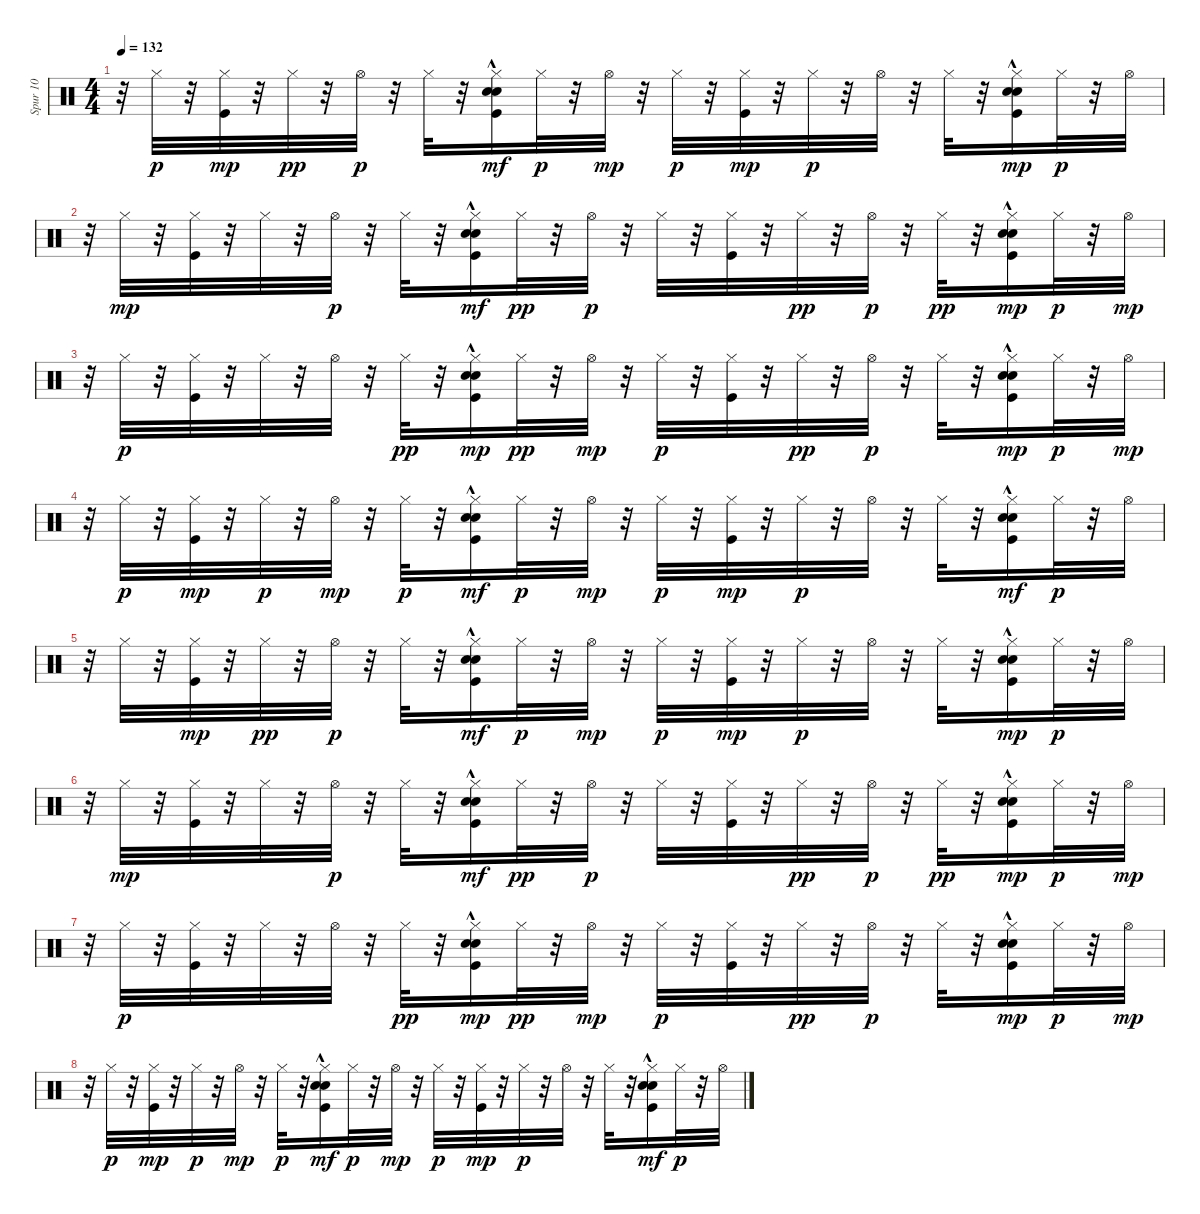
\track ("Spur 10" "Spur 10") {instrument percussion}
\staff {score}
\articulation defaults
\ts (4 4)
\tempo 132
\clef neutral
\ks c
r.32{dy p} "Hi-Hat (closed)".32 r.32 ("Hi-Hat (closed)" "Kick (hit)").32{dy mp} r.32 "Hi-Hat (closed)".32{dy pp} r.32 "Hi-Hat (open)".32{dy p} r.32 "Hi-Hat (closed)".32 r.32 ("Hi-Hat (closed)" "Snare (hit) 2" "Kick (hit)" "Hand Clap (hit)"{hac}).16{dy mf} "Hi-Hat (closed)".32{dy p} r.32 "Hi-Hat (open)".32{dy mp} r.32 "Hi-Hat (closed)".32{dy p} r.32 ("Hi-Hat (closed)" "Kick (hit)").32{dy mp} r.32 "Hi-Hat (closed)".32{dy p} r.32 "Hi-Hat (open)".32 r.32 "Hi-Hat (closed)".32 r.32 ("Hi-Hat (closed)" "Kick (hit)" "Snare (hit) 2" "Hand Clap (hit)"{hac}).16{dy mp} "Hi-Hat (closed)".32{dy p} r.32 "Hi-Hat (open)".32 |
r.32 "Hi-Hat (closed)".32{dy mp} r.32 ("Kick (hit)" "Hi-Hat (closed)").32 r.32 "Hi-Hat (closed)".32 r.32 "Hi-Hat (open)".32{dy p} r.32 "Hi-Hat (closed)".32 r.32 ("Hi-Hat (closed)" "Snare (hit) 2" "Kick (hit)" "Hand Clap (hit)"{hac}).16{dy mf} "Hi-Hat (closed)".32{dy pp} r.32 "Hi-Hat (open)".32{dy p} r.32 "Hi-Hat (closed)".32 r.32 ("Hi-Hat (closed)" "Kick (hit)").32 r.32 "Hi-Hat (closed)".32{dy pp} r.32 "Hi-Hat (open)".32{dy p} r.32 "Hi-Hat (closed)".32{dy pp} r.32 ("Hi-Hat (closed)" "Kick (hit)" "Snare (hit) 2" "Hand Clap (hit)"{hac}).16{dy mp} "Hi-Hat (closed)".32{dy p} r.32 "Hi-Hat (open)".32{dy mp} |
r.32 "Hi-Hat (closed)".32{dy p} r.32 ("Hi-Hat (closed)" "Kick (hit)").32 r.32 "Hi-Hat (closed)".32 r.32 "Hi-Hat (open)".32 r.32 "Hi-Hat (closed)".32{dy pp} r.32 ("Hi-Hat (closed)" "Kick (hit)" "Snare (hit) 2" "Hand Clap (hit)"{hac}).16{dy mp} "Hi-Hat (closed)".32{dy pp} r.32 "Hi-Hat (open)".32{dy mp} r.32 "Hi-Hat (closed)".32{dy p} r.32 ("Hi-Hat (closed)" "Kick (hit)").32 r.32 "Hi-Hat (closed)".32{dy pp} r.32 "Hi-Hat (open)".32{dy p} r.32 "Hi-Hat (closed)".32 r.32 ("Hi-Hat (closed)" "Kick (hit)" "Snare (hit) 2" "Hand Clap (hit)"{hac}).16{dy mp} "Hi-Hat (closed)".32{dy p} r.32 "Hi-Hat (open)".32{dy mp} |
r.32 "Hi-Hat (closed)".32{dy p} r.32 ("Hi-Hat (closed)" "Kick (hit)").32{dy mp} r.32 "Hi-Hat (closed)".32{dy p} r.32 "Hi-Hat (open)".32{dy mp} r.32 "Hi-Hat (closed)".32{dy p} r.32 ("Hi-Hat (closed)" "Snare (hit) 2" "Kick (hit)" "Hand Clap (hit)"{hac}).16{dy mf} "Hi-Hat (closed)".32{dy p} r.32 "Hi-Hat (open)".32{dy mp} r.32 "Hi-Hat (closed)".32{dy p} r.32 ("Hi-Hat (closed)" "Kick (hit)").32{dy mp} r.32 "Hi-Hat (closed)".32{dy p} r.32 "Hi-Hat (open)".32 r.32 "Hi-Hat (closed)".32 r.32 ("Hi-Hat (closed)" "Snare (hit) 2" "Kick (hit)" "Hand Clap (hit)"{hac}).16{dy mf} "Hi-Hat (closed)".32{dy p} r.32 "Hi-Hat (open)".32 |
r.32 "Hi-Hat (closed)".32 r.32 ("Hi-Hat (closed)" "Kick (hit)").32{dy mp} r.32 "Hi-Hat (closed)".32{dy pp} r.32 "Hi-Hat (open)".32{dy p} r.32 "Hi-Hat (closed)".32 r.32 ("Hi-Hat (closed)" "Snare (hit) 2" "Kick (hit)" "Hand Clap (hit)"{hac}).16{dy mf} "Hi-Hat (closed)".32{dy p} r.32 "Hi-Hat (open)".32{dy mp} r.32 "Hi-Hat (closed)".32{dy p} r.32 ("Hi-Hat (closed)" "Kick (hit)").32{dy mp} r.32 "Hi-Hat (closed)".32{dy p} r.32 "Hi-Hat (open)".32 r.32 "Hi-Hat (closed)".32 r.32 ("Hi-Hat (closed)" "Kick (hit)" "Snare (hit) 2" "Hand Clap (hit)"{hac}).16{dy mp} "Hi-Hat (closed)".32{dy p} r.32 "Hi-Hat (open)".32 |
r.32 "Hi-Hat (closed)".32{dy mp} r.32 ("Kick (hit)" "Hi-Hat (closed)").32 r.32 "Hi-Hat (closed)".32 r.32 "Hi-Hat (open)".32{dy p} r.32 "Hi-Hat (closed)".32 r.32 ("Hi-Hat (closed)" "Snare (hit) 2" "Kick (hit)" "Hand Clap (hit)"{hac}).16{dy mf} "Hi-Hat (closed)".32{dy pp} r.32 "Hi-Hat (open)".32{dy p} r.32 "Hi-Hat (closed)".32 r.32 ("Hi-Hat (closed)" "Kick (hit)").32 r.32 "Hi-Hat (closed)".32{dy pp} r.32 "Hi-Hat (open)".32{dy p} r.32 "Hi-Hat (closed)".32{dy pp} r.32 ("Hi-Hat (closed)" "Kick (hit)" "Snare (hit) 2" "Hand Clap (hit)"{hac}).16{dy mp} "Hi-Hat (closed)".32{dy p} r.32 "Hi-Hat (open)".32{dy mp} |
r.32 "Hi-Hat (closed)".32{dy p} r.32 ("Hi-Hat (closed)" "Kick (hit)").32 r.32 "Hi-Hat (closed)".32 r.32 "Hi-Hat (open)".32 r.32 "Hi-Hat (closed)".32{dy pp} r.32 ("Hi-Hat (closed)" "Kick (hit)" "Snare (hit) 2" "Hand Clap (hit)"{hac}).16{dy mp} "Hi-Hat (closed)".32{dy pp} r.32 "Hi-Hat (open)".32{dy mp} r.32 "Hi-Hat (closed)".32{dy p} r.32 ("Hi-Hat (closed)" "Kick (hit)").32 r.32 "Hi-Hat (closed)".32{dy pp} r.32 "Hi-Hat (open)".32{dy p} r.32 "Hi-Hat (closed)".32 r.32 ("Hi-Hat (closed)" "Kick (hit)" "Snare (hit) 2" "Hand Clap (hit)"{hac}).16{dy mp} "Hi-Hat (closed)".32{dy p} r.32 "Hi-Hat (open)".32{dy mp} |
r.32 "Hi-Hat (closed)".32{dy p} r.32 ("Hi-Hat (closed)" "Kick (hit)").32{dy mp} r.32 "Hi-Hat (closed)".32{dy p} r.32 "Hi-Hat (open)".32{dy mp} r.32 "Hi-Hat (closed)".32{dy p} r.32 ("Hi-Hat (closed)" "Snare (hit) 2" "Kick (hit)" "Hand Clap (hit)"{hac}).16{dy mf} "Hi-Hat (closed)".32{dy p} r.32 "Hi-Hat (open)".32{dy mp} r.32 "Hi-Hat (closed)".32{dy p} r.32 ("Hi-Hat (closed)" "Kick (hit)").32{dy mp} r.32 "Hi-Hat (closed)".32{dy p} r.32 "Hi-Hat (open)".32 r.32 "Hi-Hat (closed)".32 r.32 ("Hi-Hat (closed)" "Snare (hit) 2" "Kick (hit)" "Hand Clap (hit)"{hac}).16{dy mf} "Hi-Hat (closed)".32{dy p} r.32 "Hi-Hat (open)".32
